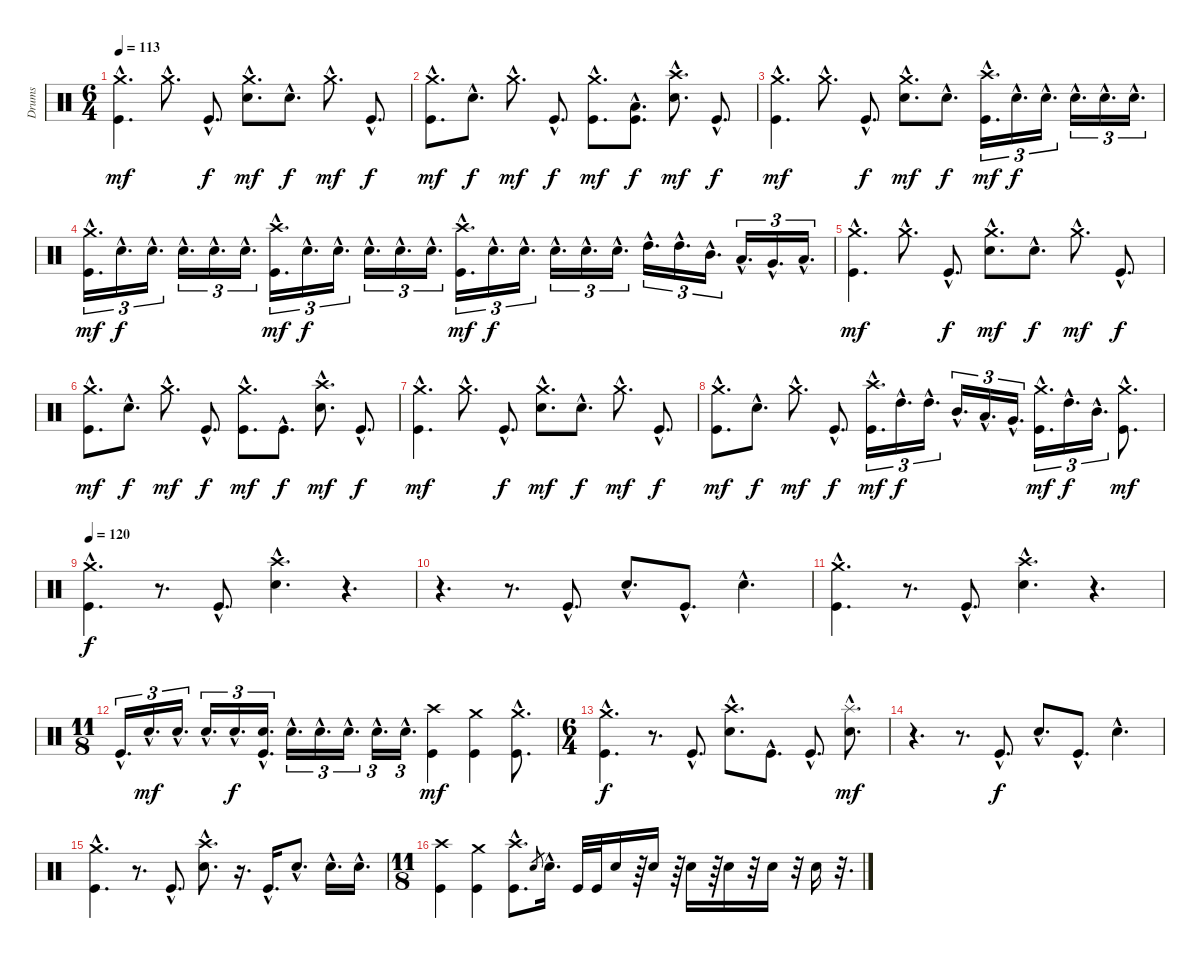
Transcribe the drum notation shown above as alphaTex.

\track ("Drums" "Drums") {instrument percussion}
\staff {score}
\articulation defaults
\ts (6 4)
\section ("" "")
\tempo 113
\clef neutral
\ks c
("Crash medium (hit)"{hac} "Kick (hit)"{hac}).4{d dy mf} "Crash medium (hit)"{hac}.8{d} "Kick (hit)"{hac}.8{d dy f} ("Crash medium (hit)"{hac} "Electric Snare (hit)"{hac}).8{d dy mf} "Electric Snare (hit)"{hac}.8{d dy f} "Crash medium (hit)"{hac}.8{d dy mf} "Kick (hit)"{hac}.8{d dy f} |
("Crash medium (hit)"{hac} "Kick (hit)"{hac}).8{d dy mf} "Electric Snare (hit)"{hac}.8{d dy f} "Crash medium (hit)"{hac}.8{d dy mf} "Kick (hit)"{hac}.8{d dy f} ("Crash medium (hit)"{hac} "Kick (hit)"{hac}).8{d dy mf} ("Low Tom (hit)"{hac} "Kick (hit)"{hac}).8{d dy f} ("Crash high (hit)"{hac} "Electric Snare (hit)"{hac}).8{d dy mf} "Kick (hit)"{hac}.8{d dy f} |
("Crash medium (hit)"{hac} "Kick (hit)"{hac}).4{d dy mf} "Crash medium (hit)"{hac}.8{d} "Kick (hit)"{hac}.8{d dy f} ("Crash medium (hit)"{hac} "Electric Snare (hit)"{hac}).8{d dy mf} "Electric Snare (hit)"{hac}.8{d dy f} ("Crash high (hit)"{hac} "Kick (hit)"{hac}).16{d tu (3 2) dy mf} "Electric Snare (hit)"{hac}.16{d tu (3 2) dy f} "Electric Snare (hit)"{hac}.16{d tu (3 2)} "Electric Snare (hit)"{hac}.16{d tu (3 2)} "Electric Snare (hit)"{hac}.16{d tu (3 2)} "Electric Snare (hit)"{hac}.16{d tu (3 2)} |
("Crash medium (hit)"{hac} "Kick (hit)"{hac}).16{d tu (3 2) dy mf} "Electric Snare (hit)"{hac}.16{d tu (3 2) dy f} "Electric Snare (hit)"{hac}.16{d tu (3 2)} "Electric Snare (hit)"{hac}.16{d tu (3 2)} "Electric Snare (hit)"{hac}.16{d tu (3 2)} "Electric Snare (hit)"{hac}.16{d tu (3 2)} ("Crash high (hit)"{hac} "Kick (hit)"{hac}).16{d tu (3 2) dy mf} "Electric Snare (hit)"{hac}.16{d tu (3 2) dy f} "Electric Snare (hit)"{hac}.16{d tu (3 2)} "Electric Snare (hit)"{hac}.16{d tu (3 2)} "Electric Snare (hit)"{hac}.16{d tu (3 2)} "Electric Snare (hit)"{hac}.16{d tu (3 2)} ("Crash high (hit)"{hac} "Kick (hit)"{hac}).16{d tu (3 2) dy mf} "Electric Snare (hit)"{hac}.16{d tu (3 2) dy f} "Electric Snare (hit)"{hac}.16{d tu (3 2)} "Electric Snare (hit)"{hac}.16{d tu (3 2)} "Electric Snare (hit)"{hac}.16{d tu (3 2)} "Electric Snare (hit)"{hac}.16{d tu (3 2)} "High Tom (hit)"{hac}.16{d tu (3 2)} "High Tom (hit)"{hac}.16{d tu (3 2)} "Mid Tom (hit)"{hac}.16{d tu (3 2)} "Low Tom (hit)"{hac}.16{d tu (3 2)} "Very Low Tom (hit)"{hac}.16{d tu (3 2)} "Low Floor Tom (hit)"{hac}.16{d tu (3 2)} |
("Crash medium (hit)"{hac} "Kick (hit)"{hac}).4{d dy mf} "Crash medium (hit)"{hac}.8{d} "Kick (hit)"{hac}.8{d dy f} ("Crash medium (hit)"{hac} "Electric Snare (hit)"{hac}).8{d dy mf} "Electric Snare (hit)"{hac}.8{d dy f} "Crash medium (hit)"{hac}.8{d dy mf} "Kick (hit)"{hac}.8{d dy f} |
("Crash medium (hit)"{hac} "Kick (hit)"{hac}).8{d dy mf} "Electric Snare (hit)"{hac}.8{d dy f} "Crash medium (hit)"{hac}.8{d dy mf} "Kick (hit)"{hac}.8{d dy f} ("Crash medium (hit)"{hac} "Kick (hit)"{hac}).8{d dy mf} "Kick (hit)"{hac}.8{d dy f} ("Crash high (hit)"{hac} "Electric Snare (hit)"{hac}).8{d dy mf} "Kick (hit)"{hac}.8{d dy f} |
("Crash medium (hit)"{hac} "Kick (hit)"{hac}).4{d dy mf} "Crash medium (hit)"{hac}.8{d} "Kick (hit)"{hac}.8{d dy f} ("Crash medium (hit)"{hac} "Electric Snare (hit)"{hac}).8{d dy mf} "Electric Snare (hit)"{hac}.8{d dy f} "Crash medium (hit)"{hac}.8{d dy mf} "Kick (hit)"{hac}.8{d dy f} |
("Crash medium (hit)"{hac} "Kick (hit)"{hac}).8{d dy mf} "Electric Snare (hit)"{hac}.8{d dy f} "Crash medium (hit)"{hac}.8{d dy mf} "Kick (hit)"{hac}.8{d dy f} ("Crash high (hit)"{hac} "Kick (hit)"{hac}).16{d tu (3 2) dy mf} "High Tom (hit)"{hac}.16{d tu (3 2) dy f} "High Tom (hit)"{hac}.16{d tu (3 2)} "Mid Tom (hit)"{hac}.16{d tu (3 2)} "Low Tom (hit)"{hac}.16{d tu (3 2)} "Very Low Tom (hit)"{hac}.16{d tu (3 2)} ("Crash medium (hit)"{hac} "Kick (hit)"{hac}).16{d tu (3 2) dy mf} "High Tom (hit)"{hac}.16{d tu (3 2) dy f} "Mid Tom (hit)"{hac}.16{d tu (3 2)} ("Crash medium (hit)"{hac} "Kick (hit)"{hac}).8{d dy mf} |
\section ("" "")
\tempo 120
("Crash medium (hit)"{hac} "Kick (hit)"{hac}).4{d dy f} r.8{d} "Kick (hit)"{hac}.8{d} ("Crash high (hit)"{hac} "Electric Snare (hit)"{hac}).4{d} r.4{d} |
r.4{d} r.8{d} "Kick (hit)"{hac}.8{d} "Electric Snare (hit)"{hac}.8{d} "Kick (hit)"{hac}.8{d} "Electric Snare (hit)"{hac}.4{d} |
("Crash medium (hit)"{hac} "Kick (hit)"{hac}).4{d} r.8{d} "Kick (hit)"{hac}.8{d} ("Crash high (hit)"{hac} "Electric Snare (hit)"{hac}).4{d} r.4{d} |
\ts (11 8)
"Kick (hit)"{hac}.16{d tu (3 2)} "Electric Snare (hit)"{hac}.16{d tu (3 2) dy mf} "Electric Snare (hit)"{hac}.16{d tu (3 2)} "Electric Snare (hit)"{hac}.16{d tu (3 2)} "Electric Snare (hit)"{hac}.16{d tu (3 2) dy f} ("Electric Snare (hit)"{hac} "Kick (hit)"{hac}).16{d tu (3 2)} "Electric Snare (hit)"{hac}.16{d tu (3 2)} "Electric Snare (hit)"{hac}.16{d tu (3 2)} "Electric Snare (hit)"{hac}.16{d tu (3 2)} "Electric Snare (hit)"{hac}.16{d tu (3 2)} "Electric Snare (hit)"{hac}.16{d tu (3 2)} ("Crash high (hit)" "Kick (hit)").4{dy mf} ("Crash medium (hit)" "Kick (hit)").4 ("Crash medium (hit)"{hac} "Kick (hit)"{hac}).8{d} |
\ts (6 4)
("Crash medium (hit)"{hac} "Kick (hit)"{hac}).4{d dy f} r.8{d} "Kick (hit)"{hac}.8{d} ("Crash high (hit)"{hac} "Electric Snare (hit)"{hac}).8{d} "Kick (hit)"{hac}.8{d} "Kick (hit)"{hac}.8{d} ("Splash (hit)"{hac} "Electric Snare (hit)"{hac}).8{d dy mf} |
r.4{d} r.8{d} "Kick (hit)"{hac}.8{d dy f} "Electric Snare (hit)"{hac}.8{d} "Kick (hit)"{hac}.8{d} "Electric Snare (hit)"{hac}.4{d} |
("Crash medium (hit)"{hac} "Kick (hit)"{hac}).4{d} r.8{d} "Kick (hit)"{hac}.8{d} ("Crash high (hit)"{hac} "Electric Snare (hit)"{hac}).8{d} r.16{d} "Kick (hit)"{hac}.16{d} "Electric Snare (hit)"{hac}.8{d} "Electric Snare (hit)"{hac}.16{d} "Electric Snare (hit)"{hac}.16{d} |
\ts (11 8)
("Crash high (hit)" "Kick (hit)").4 ("Crash medium (hit)" "Kick (hit)").4 ("Crash high (hit)"{hac} "Kick (hit)"{hac}).8{d} "Electric Snare (hit)".8{gr} "Electric Snare (hit)"{hac}.16{d} "Kick (hit)".32 "Kick (hit)".32 "Electric Snare (hit)".16 r.64 "Electric Snare (hit)".16 r.64 "Electric Snare (hit)".16 r.64 "Electric Snare (hit)".16 r.32 "Electric Snare (hit)".16 r.32 "Electric Snare (hit)".16 r.32{d}
